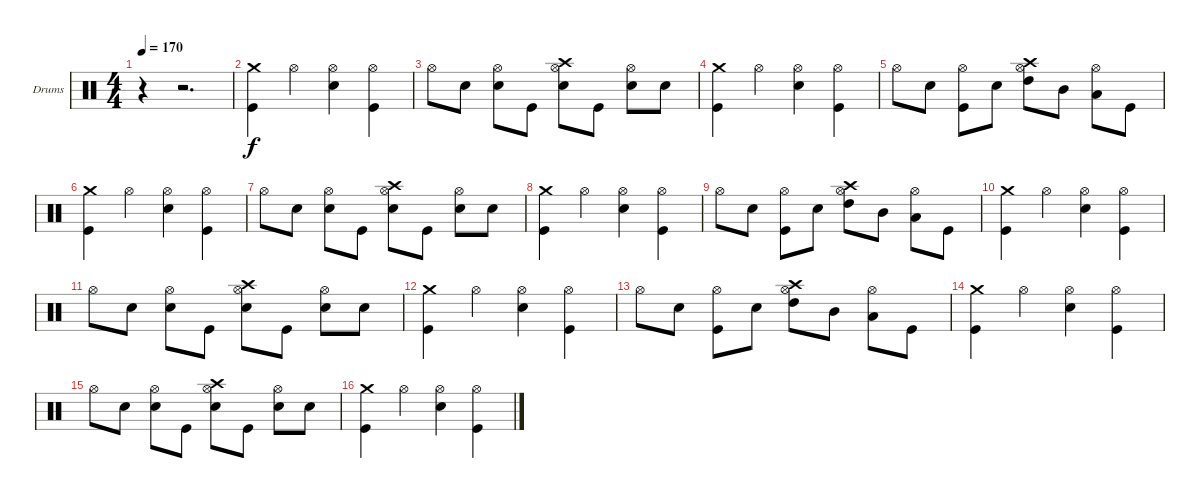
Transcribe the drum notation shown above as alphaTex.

\bracketExtendMode groupsimilarinstruments
\firstSystemTrackNameOrientation horizontal
\otherSystemsTrackNameOrientation horizontal
\track ("Drumkit" "Drums") {instrument percussion}
\staff {score}
\articulation defaults
\ts (4 4)
\tempo 170
\clef neutral
\ks c
r.4{dy f} r.2{d} |
("Crash medium (hit)" "Kick (hit)").4 "Hi-Hat (open)".4 ("Hi-Hat (open)" "Snare (hit) 2").4 ("Hi-Hat (open)" "Kick (hit)").4 |
"Hi-Hat (open)".8 "Snare (hit) 2".8 ("Hi-Hat (open)" "Snare (hit) 2").8 "Kick (hit)".8 ("Hi-Hat (open)" "Crash high (hit)" "Snare (hit) 2").8 "Kick (hit)".8 ("Hi-Hat (open)" "Snare (hit) 2").8 "Snare (hit) 2".8 |
("Crash medium (hit)" "Kick (hit)").4 "Hi-Hat (open)".4 ("Hi-Hat (open)" "Snare (hit) 2").4 ("Hi-Hat (open)" "Kick (hit)").4 |
"Hi-Hat (open)".8 "Snare (hit) 2".8 ("Hi-Hat (open)" "Kick (hit)").8 "Snare (hit) 2".8 ("Hi-Hat (open)" "Crash high (hit)" "High Tom (hit)").8 "Mid Tom (hit)".8 ("Hi-Hat (open)" "Low Tom (hit)").8 "Kick (hit)".8 |
("Crash medium (hit)" "Kick (hit)").4 "Hi-Hat (open)".4 ("Hi-Hat (open)" "Snare (hit) 2").4 ("Hi-Hat (open)" "Kick (hit)").4 |
"Hi-Hat (open)".8 "Snare (hit) 2".8 ("Hi-Hat (open)" "Snare (hit) 2").8 "Kick (hit)".8 ("Hi-Hat (open)" "Crash high (hit)" "Snare (hit) 2").8 "Kick (hit)".8 ("Hi-Hat (open)" "Snare (hit) 2").8 "Snare (hit) 2".8 |
("Crash medium (hit)" "Kick (hit)").4 "Hi-Hat (open)".4 ("Hi-Hat (open)" "Snare (hit) 2").4 ("Hi-Hat (open)" "Kick (hit)").4 |
"Hi-Hat (open)".8 "Snare (hit) 2".8 ("Hi-Hat (open)" "Kick (hit)").8 "Snare (hit) 2".8 ("Hi-Hat (open)" "Crash high (hit)" "High Tom (hit)").8 "Mid Tom (hit)".8 ("Hi-Hat (open)" "Low Tom (hit)").8 "Kick (hit)".8 |
("Crash medium (hit)" "Kick (hit)").4 "Hi-Hat (open)".4 ("Hi-Hat (open)" "Snare (hit) 2").4 ("Hi-Hat (open)" "Kick (hit)").4 |
"Hi-Hat (open)".8 "Snare (hit) 2".8 ("Hi-Hat (open)" "Snare (hit) 2").8 "Kick (hit)".8 ("Hi-Hat (open)" "Crash high (hit)" "Snare (hit) 2").8 "Kick (hit)".8 ("Hi-Hat (open)" "Snare (hit) 2").8 "Snare (hit) 2".8 |
("Crash medium (hit)" "Kick (hit)").4 "Hi-Hat (open)".4 ("Hi-Hat (open)" "Snare (hit) 2").4 ("Hi-Hat (open)" "Kick (hit)").4 |
"Hi-Hat (open)".8 "Snare (hit) 2".8 ("Hi-Hat (open)" "Kick (hit)").8 "Snare (hit) 2".8 ("Hi-Hat (open)" "Crash high (hit)" "High Tom (hit)").8 "Mid Tom (hit)".8 ("Hi-Hat (open)" "Low Tom (hit)").8 "Kick (hit)".8 |
("Crash medium (hit)" "Kick (hit)").4 "Hi-Hat (open)".4 ("Hi-Hat (open)" "Snare (hit) 2").4 ("Hi-Hat (open)" "Kick (hit)").4 |
"Hi-Hat (open)".8 "Snare (hit) 2".8 ("Hi-Hat (open)" "Snare (hit) 2").8 "Kick (hit)".8 ("Hi-Hat (open)" "Crash high (hit)" "Snare (hit) 2").8 "Kick (hit)".8 ("Hi-Hat (open)" "Snare (hit) 2").8 "Snare (hit) 2".8 |
("Crash medium (hit)" "Kick (hit)").4 "Hi-Hat (open)".4 ("Hi-Hat (open)" "Snare (hit) 2").4 ("Hi-Hat (open)" "Kick (hit)").4
